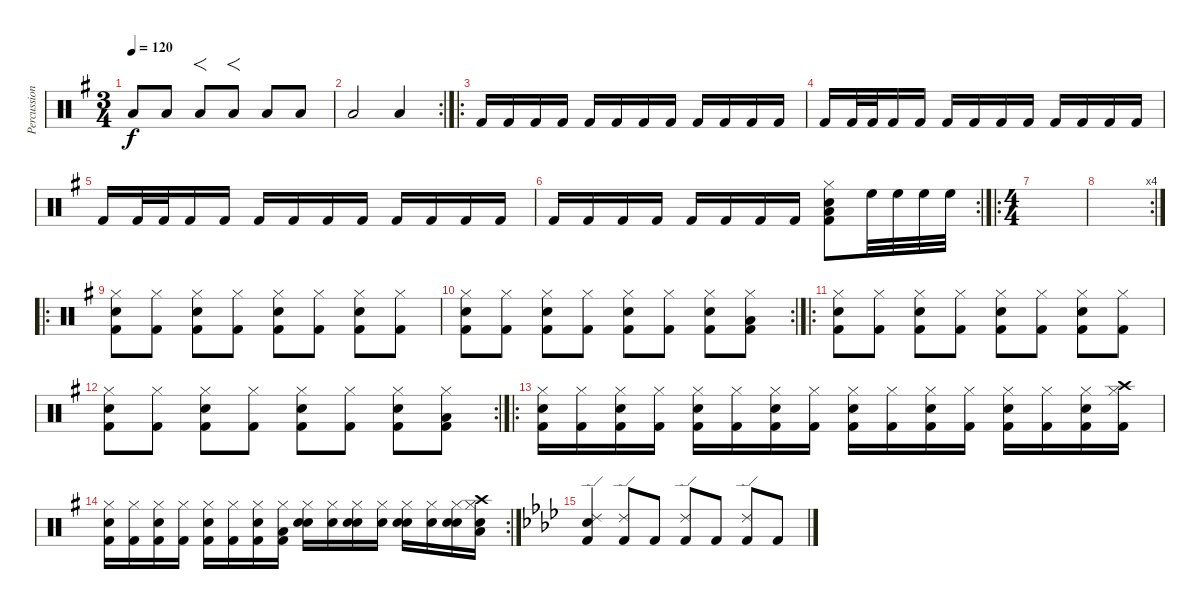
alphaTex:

\track ("Percussion" "Percussion") {instrument percussion}
\staff {score}
\articulation defaults
\ts (3 4)
\tempo 120
\clef neutral
\ks eminor "Low Tom (hit)".8{dy f} "Low Tom (hit)".8 "Low Tom (hit)".8{f} "Low Tom (hit)".8{f} "Low Tom (hit)".8 "Low Tom (hit)".8
|
\rc 2 "Low Floor Tom (hit)".2 "Low Floor Tom (hit)".4
|
\ro "Kick (hit) 2".16 "Kick (hit) 2".16 "Kick (hit) 2".16 "Kick (hit) 2".16 "Kick (hit) 2".16 "Kick (hit) 2".16 "Kick (hit) 2".16 "Kick (hit) 2".16 "Kick (hit) 2".16 "Kick (hit) 2".16 "Kick (hit) 2".16 "Kick (hit) 2".16
|
"Kick (hit) 2".16 "Kick (hit) 2".32 "Kick (hit) 2".32 "Kick (hit) 2".16 "Kick (hit) 2".16 "Kick (hit) 2".16 "Kick (hit) 2".16 "Kick (hit) 2".16 "Kick (hit) 2".16 "Kick (hit) 2".16 "Kick (hit) 2".16 "Kick (hit) 2".16 "Kick (hit) 2".16 |
"Kick (hit) 2".16 "Kick (hit) 2".32 "Kick (hit) 2".32 "Kick (hit) 2".16 "Kick (hit) 2".16 "Kick (hit) 2".16 "Kick (hit) 2".16 "Kick (hit) 2".16 "Kick (hit) 2".16 "Kick (hit) 2".16 "Kick (hit) 2".16 "Kick (hit) 2".16 "Kick (hit) 2".16 |
\rc 2 "Kick (hit) 2".16 "Kick (hit) 2".16 "Kick (hit) 2".16 "Kick (hit) 2".16 "Kick (hit) 2".16 "Kick (hit) 2".16 "Kick (hit) 2".16 "Kick (hit) 2".16
("Low Floor Tom (hit)" "Hi-Hat (closed)" "Snare (hit) 2" "Kick (hit) 2").8 "High Floor Tom (hit)".32 "High Floor Tom (hit)".32 "High Floor Tom (hit)".32 "High Floor Tom (hit)".32 |
\ro
\ts (4 4)
|
\rc 4
|
\ro
("Hi-Hat (closed)" "Snare (hit) 2" "Kick (hit) 2").8 ("Hi-Hat (closed)" "Kick (hit) 2").8 ("Hi-Hat (closed)" "Snare (hit) 2" "Kick (hit) 2").8 ("Hi-Hat (closed)" "Kick (hit) 2").8 ("Hi-Hat (closed)" "Snare (hit) 2" "Kick (hit) 2").8 ("Hi-Hat (closed)" "Kick (hit) 2").8 ("Hi-Hat (closed)" "Snare (hit) 2" "Kick (hit) 2").8 ("Hi-Hat (closed)" "Kick (hit) 2").8 |
\rc 2
("Hi-Hat (closed)" "Snare (hit) 2" "Kick (hit) 2").8 ("Hi-Hat (closed)" "Kick (hit) 2").8 ("Hi-Hat (closed)" "Snare (hit) 2" "Kick (hit) 2").8 ("Hi-Hat (closed)" "Kick (hit) 2").8 ("Hi-Hat (closed)" "Snare (hit) 2" "Kick (hit) 2").8 ("Hi-Hat (closed)" "Kick (hit) 2").8 ("Hi-Hat (closed)" "Snare (hit) 2" "Kick (hit) 2").8 ("Hi-Hat (closed)" "Low Floor Tom (hit)" "Kick (hit) 2").8 |
\ro
("Hi-Hat (closed)" "Snare (hit) 2" "Kick (hit) 2").8 ("Hi-Hat (closed)" "Kick (hit) 2").8 ("Hi-Hat (closed)" "Snare (hit) 2" "Kick (hit) 2").8 ("Hi-Hat (closed)" "Kick (hit) 2").8 ("Hi-Hat (closed)" "Snare (hit) 2" "Kick (hit) 2").8 ("Hi-Hat (closed)" "Kick (hit) 2").8 ("Hi-Hat (closed)" "Snare (hit) 2" "Kick (hit) 2").8 ("Hi-Hat (closed)" "Kick (hit) 2").8 |
\rc 2
("Hi-Hat (closed)" "Snare (hit) 2" "Kick (hit) 2").8 ("Hi-Hat (closed)" "Kick (hit) 2").8 ("Hi-Hat (closed)" "Snare (hit) 2" "Kick (hit) 2").8 ("Hi-Hat (closed)" "Kick (hit) 2").8 ("Hi-Hat (closed)" "Snare (hit) 2" "Kick (hit) 2").8 ("Hi-Hat (closed)" "Kick (hit) 2").8 ("Hi-Hat (closed)" "Snare (hit) 2" "Kick (hit) 2").8 ("Hi-Hat (closed)" "Low Floor Tom (hit)" "Kick (hit) 2").8 |
\ro
("Hi-Hat (closed)" "Snare (hit) 2" "Kick (hit) 2").16 ("Hi-Hat (closed)" "Kick (hit) 2").16 ("Hi-Hat (closed)" "Snare (hit) 2" "Kick (hit) 2").16 ("Hi-Hat (closed)" "Kick (hit) 2").16 ("Hi-Hat (closed)" "Snare (hit) 2" "Kick (hit) 2").16 ("Hi-Hat (closed)" "Kick (hit) 2").16 ("Hi-Hat (closed)" "Snare (hit) 2" "Kick (hit) 2").16 ("Hi-Hat (closed)" "Kick (hit) 2").16 ("Hi-Hat (closed)" "Snare (hit) 2" "Kick (hit) 2").16 ("Hi-Hat (closed)" "Kick (hit) 2").16 ("Hi-Hat (closed)" "Snare (hit) 2" "Kick (hit) 2").16 ("Hi-Hat (closed)" "Kick (hit) 2").16 ("Hi-Hat (closed)" "Snare (hit) 2" "Kick (hit) 2").16 ("Hi-Hat (closed)" "Kick (hit) 2").16 ("Hi-Hat (closed)" "Snare (hit) 2" "Kick (hit) 2").16 ("Crash high (hit)" "Hi-Hat (closed)" "Kick (hit) 2").16 |
\rc 2
("Hi-Hat (closed)" "Snare (hit) 2" "Kick (hit) 2").16 ("Hi-Hat (closed)" "Kick (hit) 2").16 ("Hi-Hat (closed)" "Snare (hit) 2" "Kick (hit) 2").16 ("Hi-Hat (closed)" "Kick (hit) 2").16 ("Hi-Hat (closed)" "Snare (hit) 2" "Kick (hit) 2").16 ("Hi-Hat (closed)" "Kick (hit) 2").16 ("Hi-Hat (closed)" "Snare (hit) 2" "Kick (hit) 2").16 ("Hi-Hat (closed)" "Low Floor Tom (hit)" "Kick (hit) 2").16 ("Hi-Hat (closed)" "Snare (hit) 2" "Snare (hit) 2").16 ("Hi-Hat (closed)" "Snare (hit) 2").16 ("Hi-Hat (closed)" "Snare (hit) 2" "Snare (hit) 2").16 ("Hi-Hat (closed)" "Snare (hit) 2").16 ("Hi-Hat (closed)" "Snare (hit) 2" "Snare (hit) 2").16 ("Hi-Hat (closed)" "Snare (hit) 2").16 ("Hi-Hat (closed)" "Snare (hit) 2" "Snare (hit) 2").16 ("Crash high (hit)" "Hi-Hat (closed)" "Low Floor Tom (hit)" "Snare (hit) 2").16 |
\ks fminor
("Kick (hit) 2" "Electric Snare (hit)" "Ride (edge) 2").4 ("Kick (hit) 2" "Ride (edge) 2").8 "Kick (hit) 2".8 ("Kick (hit) 2" "Ride (edge) 2").8 "Kick (hit) 2".8 ("Kick (hit) 2" "Ride (edge) 2").8 "Kick (hit) 2".8
